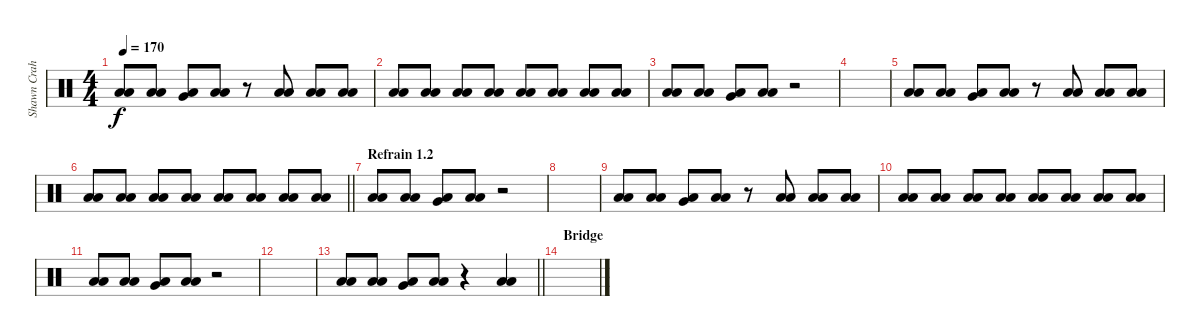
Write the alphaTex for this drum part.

\track ("Shawn Crahan" "Shawn Crah") {instrument percussion}
\staff {score}
\articulation defaults
\ts (4 4)
\tempo 170
\clef neutral
\ks c
("Low Floor Tom (hit)" "Low Floor Tom (hit)").8{dy f} ("Low Floor Tom (hit)" "Low Floor Tom (hit)").8 ("Very Low Tom (hit)" "Low Floor Tom (hit)").8 ("Low Floor Tom (hit)" "Low Floor Tom (hit)").8 r.8 ("Low Floor Tom (hit)" "Low Floor Tom (hit)").8 ("Low Floor Tom (hit)" "Low Floor Tom (hit)").8 ("Low Floor Tom (hit)" "Low Floor Tom (hit)").8 |
("Low Floor Tom (hit)" "Low Floor Tom (hit)").8 ("Low Floor Tom (hit)" "Low Floor Tom (hit)").8 ("Low Floor Tom (hit)" "Low Floor Tom (hit)").8 ("Low Floor Tom (hit)" "Low Floor Tom (hit)").8 ("Low Floor Tom (hit)" "Low Floor Tom (hit)").8 ("Low Floor Tom (hit)" "Low Floor Tom (hit)").8 ("Low Floor Tom (hit)" "Low Floor Tom (hit)").8 ("Low Floor Tom (hit)" "Low Floor Tom (hit)").8 |
("Low Floor Tom (hit)" "Low Floor Tom (hit)").8 ("Low Floor Tom (hit)" "Low Floor Tom (hit)").8 ("Very Low Tom (hit)" "Low Floor Tom (hit)").8 ("Low Floor Tom (hit)" "Low Floor Tom (hit)").8 r.2 |
|
("Low Floor Tom (hit)" "Low Floor Tom (hit)").8 ("Low Floor Tom (hit)" "Low Floor Tom (hit)").8 ("Very Low Tom (hit)" "Low Floor Tom (hit)").8 ("Low Floor Tom (hit)" "Low Floor Tom (hit)").8 r.8 ("Low Floor Tom (hit)" "Low Floor Tom (hit)").8 ("Low Floor Tom (hit)" "Low Floor Tom (hit)").8 ("Low Floor Tom (hit)" "Low Floor Tom (hit)").8 |
\barLineRight lightlight
("Low Floor Tom (hit)" "Low Floor Tom (hit)").8 ("Low Floor Tom (hit)" "Low Floor Tom (hit)").8 ("Low Floor Tom (hit)" "Low Floor Tom (hit)").8 ("Low Floor Tom (hit)" "Low Floor Tom (hit)").8 ("Low Floor Tom (hit)" "Low Floor Tom (hit)").8 ("Low Floor Tom (hit)" "Low Floor Tom (hit)").8 ("Low Floor Tom (hit)" "Low Floor Tom (hit)").8 ("Low Floor Tom (hit)" "Low Floor Tom (hit)").8 |
\section ("" "Refrain 1.2")
("Low Floor Tom (hit)" "Low Floor Tom (hit)").8 ("Low Floor Tom (hit)" "Low Floor Tom (hit)").8 ("Very Low Tom (hit)" "Low Floor Tom (hit)").8 ("Low Floor Tom (hit)" "Low Floor Tom (hit)").8 r.2 |
|
("Low Floor Tom (hit)" "Low Floor Tom (hit)").8 ("Low Floor Tom (hit)" "Low Floor Tom (hit)").8 ("Very Low Tom (hit)" "Low Floor Tom (hit)").8 ("Low Floor Tom (hit)" "Low Floor Tom (hit)").8 r.8 ("Low Floor Tom (hit)" "Low Floor Tom (hit)").8 ("Low Floor Tom (hit)" "Low Floor Tom (hit)").8 ("Low Floor Tom (hit)" "Low Floor Tom (hit)").8 |
("Low Floor Tom (hit)" "Low Floor Tom (hit)").8 ("Low Floor Tom (hit)" "Low Floor Tom (hit)").8 ("Low Floor Tom (hit)" "Low Floor Tom (hit)").8 ("Low Floor Tom (hit)" "Low Floor Tom (hit)").8 ("Low Floor Tom (hit)" "Low Floor Tom (hit)").8 ("Low Floor Tom (hit)" "Low Floor Tom (hit)").8 ("Low Floor Tom (hit)" "Low Floor Tom (hit)").8 ("Low Floor Tom (hit)" "Low Floor Tom (hit)").8 |
("Low Floor Tom (hit)" "Low Floor Tom (hit)").8 ("Low Floor Tom (hit)" "Low Floor Tom (hit)").8 ("Very Low Tom (hit)" "Low Floor Tom (hit)").8 ("Low Floor Tom (hit)" "Low Floor Tom (hit)").8 r.2 |
|
\barLineRight lightlight
("Low Floor Tom (hit)" "Low Floor Tom (hit)").8 ("Low Floor Tom (hit)" "Low Floor Tom (hit)").8 ("Very Low Tom (hit)" "Low Floor Tom (hit)").8 ("Low Floor Tom (hit)" "Low Floor Tom (hit)").8 r.4 ("Low Floor Tom (hit)" "Low Floor Tom (hit)").4 |
\section ("" "Bridge")
